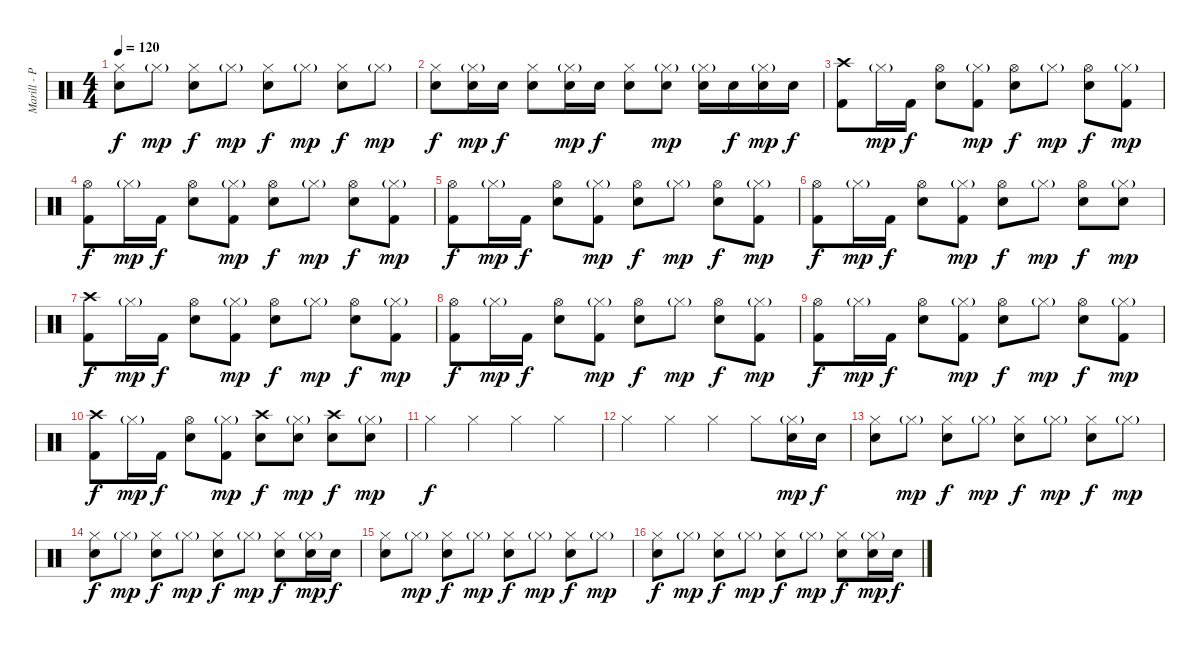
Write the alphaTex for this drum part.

\track ("Marill - Percussion" "Marill - P") {instrument percussion}
\staff {score}
\articulation defaults
\ts (4 4)
\tempo 120
\clef neutral
\ks c
("Hi-Hat (closed)" "Electric Snare (hit)").8{dy f} "Hi-Hat (closed)"{g}.8{dy mp} ("Hi-Hat (closed)" "Electric Snare (hit)").8{dy f} "Hi-Hat (closed)"{g}.8{dy mp} ("Hi-Hat (closed)" "Electric Snare (hit)").8{dy f} "Hi-Hat (closed)"{g}.8{dy mp} ("Hi-Hat (closed)" "Electric Snare (hit)").8{dy f} "Hi-Hat (closed)"{g}.8{dy mp} |
("Hi-Hat (closed)" "Electric Snare (hit)").8{dy f} ("Hi-Hat (closed)"{g} "Electric Snare (hit)").16{dy mp} "Electric Snare (hit)".16{dy f} ("Hi-Hat (closed)" "Electric Snare (hit)").8 ("Hi-Hat (closed)"{g} "Electric Snare (hit)").16{dy mp} "Electric Snare (hit)".16{dy f} ("Hi-Hat (closed)" "Electric Snare (hit)").8 ("Hi-Hat (closed)"{g} "Electric Snare (hit)").8{dy mp} ("Hi-Hat (closed)"{g} "Electric Snare (hit)").16 "Electric Snare (hit)".16{dy f} ("Hi-Hat (closed)"{g} "Electric Snare (hit)").16{dy mp} "Electric Snare (hit)".16{dy f} |
("Crash high (hit)" "Kick (hit) 2").8 "Hi-Hat (closed)"{g}.16{dy mp} "Kick (hit) 2".16{dy f} ("Hi-Hat (open)" "Snare (hit) 2").8 ("Hi-Hat (closed)"{g} "Kick (hit) 2").8{dy mp} ("Hi-Hat (open)" "Snare (hit) 2").8{dy f} "Hi-Hat (closed)"{g}.8{dy mp} ("Hi-Hat (open)" "Snare (hit) 2").8{dy f} ("Hi-Hat (closed)"{g} "Kick (hit) 2").8{dy mp} |
("Hi-Hat (open)" "Kick (hit) 2").8{dy f} "Hi-Hat (closed)"{g}.16{dy mp} "Kick (hit) 2".16{dy f} ("Hi-Hat (open)" "Snare (hit) 2").8 ("Hi-Hat (closed)"{g} "Kick (hit) 2").8{dy mp} ("Hi-Hat (open)" "Snare (hit) 2").8{dy f} "Hi-Hat (closed)"{g}.8{dy mp} ("Hi-Hat (open)" "Snare (hit) 2").8{dy f} ("Hi-Hat (closed)"{g} "Kick (hit) 2").8{dy mp} |
("Hi-Hat (open)" "Kick (hit) 2").8{dy f} "Hi-Hat (closed)"{g}.16{dy mp} "Kick (hit) 2".16{dy f} ("Hi-Hat (open)" "Snare (hit) 2").8 ("Hi-Hat (closed)"{g} "Kick (hit) 2").8{dy mp} ("Hi-Hat (open)" "Snare (hit) 2").8{dy f} "Hi-Hat (closed)"{g}.8{dy mp} ("Hi-Hat (open)" "Snare (hit) 2").8{dy f} ("Hi-Hat (closed)"{g} "Kick (hit) 2").8{dy mp} |
("Hi-Hat (open)" "Kick (hit) 2").8{dy f} "Hi-Hat (closed)"{g}.16{dy mp} "Kick (hit) 2".16{dy f} ("Hi-Hat (open)" "Snare (hit) 2").8 ("Hi-Hat (closed)"{g} "Kick (hit) 2").8{dy mp} ("Hi-Hat (open)" "Snare (hit) 2").8{dy f} "Hi-Hat (closed)"{g}.8{dy mp} ("Hi-Hat (open)" "Snare (hit) 2").8{dy f} ("Hi-Hat (closed)"{g} "Snare (hit) 2").8{dy mp} |
("Crash high (hit)" "Kick (hit) 2").8{dy f} "Hi-Hat (closed)"{g}.16{dy mp} "Kick (hit) 2".16{dy f} ("Hi-Hat (open)" "Snare (hit) 2").8 ("Hi-Hat (closed)"{g} "Kick (hit) 2").8{dy mp} ("Hi-Hat (open)" "Snare (hit) 2").8{dy f} "Hi-Hat (closed)"{g}.8{dy mp} ("Hi-Hat (open)" "Snare (hit) 2").8{dy f} ("Hi-Hat (closed)"{g} "Kick (hit) 2").8{dy mp} |
("Hi-Hat (open)" "Kick (hit) 2").8{dy f} "Hi-Hat (closed)"{g}.16{dy mp} "Kick (hit) 2".16{dy f} ("Hi-Hat (open)" "Snare (hit) 2").8 ("Hi-Hat (closed)"{g} "Kick (hit) 2").8{dy mp} ("Hi-Hat (open)" "Snare (hit) 2").8{dy f} "Hi-Hat (closed)"{g}.8{dy mp} ("Hi-Hat (open)" "Snare (hit) 2").8{dy f} ("Hi-Hat (closed)"{g} "Kick (hit) 2").8{dy mp} |
("Hi-Hat (open)" "Kick (hit) 2").8{dy f} "Hi-Hat (closed)"{g}.16{dy mp} "Kick (hit) 2".16{dy f} ("Hi-Hat (open)" "Snare (hit) 2").8 ("Hi-Hat (closed)"{g} "Kick (hit) 2").8{dy mp} ("Hi-Hat (open)" "Snare (hit) 2").8{dy f} "Hi-Hat (closed)"{g}.8{dy mp} ("Hi-Hat (open)" "Snare (hit) 2").8{dy f} ("Hi-Hat (closed)"{g} "Kick (hit) 2").8{dy mp} |
("Crash high (hit)" "Kick (hit) 2").8{dy f} "Hi-Hat (closed)"{g}.16{dy mp} "Kick (hit) 2".16{dy f} ("Hi-Hat (open)" "Snare (hit) 2").8 ("Hi-Hat (closed)"{g} "Kick (hit) 2").8{dy mp} ("Crash high (hit)" "Snare (hit) 2").8{dy f} ("Hi-Hat (closed)"{g} "Snare (hit) 2").8{dy mp} ("Crash high (hit)" "Snare (hit) 2").8{dy f} ("Hi-Hat (closed)"{g} "Snare (hit) 2").8{dy mp} |
"Hi-Hat (closed)".4{dy f} "Hi-Hat (closed)".4 "Hi-Hat (closed)".4 "Hi-Hat (closed)".4 |
"Hi-Hat (closed)".4 "Hi-Hat (closed)".4 "Hi-Hat (closed)".4 "Hi-Hat (closed)".8 ("Hi-Hat (closed)"{g} "Electric Snare (hit)").16{dy mp} "Electric Snare (hit)".16{dy f} |
("Hi-Hat (closed)" "Electric Snare (hit)").8 "Hi-Hat (closed)"{g}.8{dy mp} ("Hi-Hat (closed)" "Electric Snare (hit)").8{dy f} "Hi-Hat (closed)"{g}.8{dy mp} ("Hi-Hat (closed)" "Electric Snare (hit)").8{dy f} "Hi-Hat (closed)"{g}.8{dy mp} ("Hi-Hat (closed)" "Electric Snare (hit)").8{dy f} "Hi-Hat (closed)"{g}.8{dy mp} |
("Hi-Hat (closed)" "Electric Snare (hit)").8{dy f} "Hi-Hat (closed)"{g}.8{dy mp} ("Hi-Hat (closed)" "Electric Snare (hit)").8{dy f} "Hi-Hat (closed)"{g}.8{dy mp} ("Hi-Hat (closed)" "Electric Snare (hit)").8{dy f} "Hi-Hat (closed)"{g}.8{dy mp} ("Hi-Hat (closed)" "Electric Snare (hit)").8{dy f} ("Hi-Hat (closed)"{g} "Electric Snare (hit)").16{dy mp} "Electric Snare (hit)".16{dy f} |
("Hi-Hat (closed)" "Electric Snare (hit)").8 "Hi-Hat (closed)"{g}.8{dy mp} ("Hi-Hat (closed)" "Electric Snare (hit)").8{dy f} "Hi-Hat (closed)"{g}.8{dy mp} ("Hi-Hat (closed)" "Electric Snare (hit)").8{dy f} "Hi-Hat (closed)"{g}.8{dy mp} ("Hi-Hat (closed)" "Electric Snare (hit)").8{dy f} "Hi-Hat (closed)"{g}.8{dy mp} |
("Hi-Hat (closed)" "Electric Snare (hit)").8{dy f} "Hi-Hat (closed)"{g}.8{dy mp} ("Hi-Hat (closed)" "Electric Snare (hit)").8{dy f} "Hi-Hat (closed)"{g}.8{dy mp} ("Hi-Hat (closed)" "Electric Snare (hit)").8{dy f} "Hi-Hat (closed)"{g}.8{dy mp} ("Hi-Hat (closed)" "Electric Snare (hit)").8{dy f} ("Hi-Hat (closed)"{g} "Electric Snare (hit)").16{dy mp} "Electric Snare (hit)".16{dy f}
